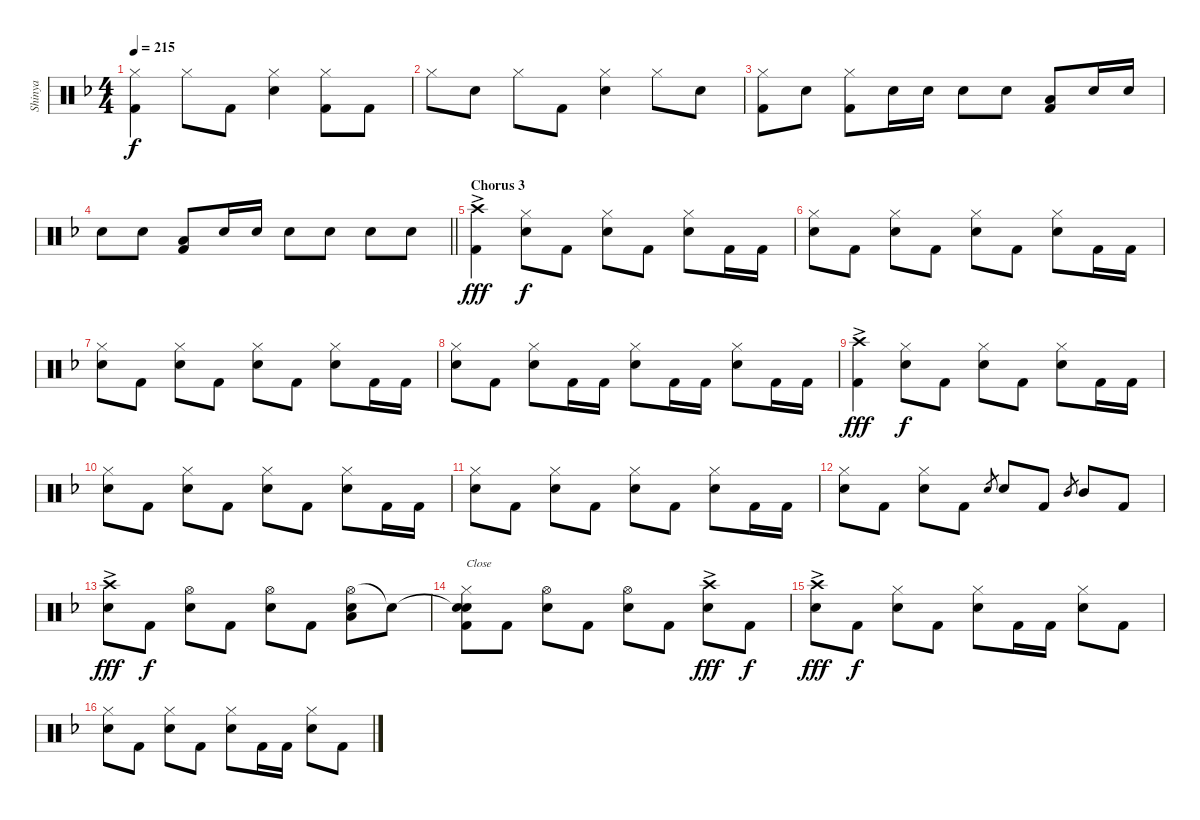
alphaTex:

\track ("Shinya" "Shinya") {instrument percussion}
\staff {score}
\articulation defaults
\ts (4 4)
\tempo 215
\clef neutral
\ks f
("Hi-Hat (closed)" "Kick (hit) 2").4{dy f} "Hi-Hat (closed)".8 "Kick (hit) 2".8 ("Hi-Hat (closed)" "Snare (hit) 2").4 ("Hi-Hat (closed)" "Kick (hit) 2").8 "Kick (hit) 2".8 |
"Hi-Hat (closed)".8 "Snare (hit) 2".8 "Hi-Hat (closed)".8 "Kick (hit) 2".8 ("Hi-Hat (closed)" "Snare (hit) 2").4 "Hi-Hat (closed)".8 "Snare (hit) 2".8 |
("Hi-Hat (closed)" "Kick (hit) 2").8 "Snare (hit) 2".8 ("Hi-Hat (closed)" "Kick (hit) 2").8 "Snare (hit) 2".16 "Snare (hit) 2".16 "Snare (hit) 2".8 "Snare (hit) 2".8 ("Low Tom (hit)" "Kick (hit) 2").8 "Snare (hit) 2".16 "Snare (hit) 2".16 |
\barLineRight lightlight "Snare (hit) 2".8 "Snare (hit) 2".8
("Low Tom (hit)" "Kick (hit) 2").8 "Snare (hit) 2".16 "Snare (hit) 2".16 "Snare (hit) 2".8 "Snare (hit) 2".8 "Snare (hit) 2".8 "Snare (hit) 2".8 |
\section ("" "Chorus 3")
("Crash high (hit)"{ac} "Kick (hit) 2").4{dy fff} ("Hi-Hat (closed)" "Snare (hit) 2").8{dy f} "Kick (hit) 2".8 ("Hi-Hat (closed)" "Snare (hit) 2").8 "Kick (hit) 2".8 ("Hi-Hat (closed)" "Snare (hit) 2").8 "Kick (hit) 2".16 "Kick (hit) 2".16 |
("Hi-Hat (closed)" "Snare (hit) 2").8 "Kick (hit) 2".8 ("Hi-Hat (closed)" "Snare (hit) 2").8 "Kick (hit) 2".8 ("Hi-Hat (closed)" "Snare (hit) 2").8 "Kick (hit) 2".8 ("Hi-Hat (closed)" "Snare (hit) 2").8 "Kick (hit) 2".16 "Kick (hit) 2".16 |
("Hi-Hat (closed)" "Snare (hit) 2").8 "Kick (hit) 2".8 ("Hi-Hat (closed)" "Snare (hit) 2").8 "Kick (hit) 2".8 ("Hi-Hat (closed)" "Snare (hit) 2").8 "Kick (hit) 2".8 ("Hi-Hat (closed)" "Snare (hit) 2").8 "Kick (hit) 2".16 "Kick (hit) 2".16 |
("Hi-Hat (closed)" "Snare (hit) 2").8 "Kick (hit) 2".8 ("Hi-Hat (closed)" "Snare (hit) 2").8 "Kick (hit) 2".16 "Kick (hit) 2".16 ("Hi-Hat (closed)" "Snare (hit) 2").8 "Kick (hit) 2".16 "Kick (hit) 2".16 ("Hi-Hat (closed)" "Snare (hit) 2").8 "Kick (hit) 2".16 "Kick (hit) 2".16 |
("Crash high (hit)"{ac} "Kick (hit) 2").4{dy fff} ("Hi-Hat (closed)" "Snare (hit) 2").8{dy f} "Kick (hit) 2".8 ("Hi-Hat (closed)" "Snare (hit) 2").8 "Kick (hit) 2".8 ("Hi-Hat (closed)" "Snare (hit) 2").8 "Kick (hit) 2".16 "Kick (hit) 2".16 |
("Hi-Hat (closed)" "Snare (hit) 2").8 "Kick (hit) 2".8 ("Hi-Hat (closed)" "Snare (hit) 2").8 "Kick (hit) 2".8 ("Hi-Hat (closed)" "Snare (hit) 2").8 "Kick (hit) 2".8 ("Hi-Hat (closed)" "Snare (hit) 2").8 "Kick (hit) 2".16 "Kick (hit) 2".16 |
("Hi-Hat (closed)" "Snare (hit) 2").8 "Kick (hit) 2".8 ("Hi-Hat (closed)" "Snare (hit) 2").8 "Kick (hit) 2".8 ("Hi-Hat (closed)" "Snare (hit) 2").8 "Kick (hit) 2".8 ("Hi-Hat (closed)" "Snare (hit) 2").8 "Kick (hit) 2".16 "Kick (hit) 2".16 |
("Hi-Hat (closed)" "Snare (hit) 2").8 "Kick (hit) 2".8 ("Hi-Hat (closed)" "Snare (hit) 2").8 "Kick (hit) 2".8 "Snare (hit) 2".8{gr} "Snare (hit) 2".8 "Kick (hit) 2".8 "Mid Tom (hit)".8{gr} "Mid Tom (hit)".8 "Kick (hit) 2".8 |
("Crash high (hit)"{ac} "Snare (hit) 2").8{dy fff} "Kick (hit) 2".8{dy f} ("Hi-Hat (open)" "Snare (hit) 2").8 "Kick (hit) 2".8 ("Hi-Hat (open)" "Snare (hit) 2").8 "Kick (hit) 2".8 ("Hi-Hat (open)" "Snare (hit) 2" "Low Floor Tom (hit)").8 "Snare (hit)"{t}.8 |
("Snare (hit)"{t} "Hi-Hat (closed)" "Snare (hit) 2" "Kick (hit) 2").8{txt "Close"} "Kick (hit) 2".8 ("Hi-Hat (open)" "Snare (hit) 2").8 "Kick (hit) 2".8 ("Hi-Hat (open)" "Snare (hit) 2").8 "Kick (hit) 2".8 ("Crash high (hit)"{ac} "Snare (hit) 2").8{dy fff} "Kick (hit) 2".8{dy f} |
("Crash high (hit)"{ac} "Snare (hit) 2").8{dy fff} "Kick (hit) 2".8{dy f} ("Hi-Hat (closed)" "Snare (hit) 2").8 "Kick (hit) 2".8 ("Hi-Hat (closed)" "Snare (hit) 2").8 "Kick (hit) 2".16 "Kick (hit) 2".16 ("Hi-Hat (closed)" "Snare (hit) 2").8 "Kick (hit) 2".8 |
("Hi-Hat (closed)" "Snare (hit) 2").8 "Kick (hit) 2".8 ("Hi-Hat (closed)" "Snare (hit) 2").8 "Kick (hit) 2".8 ("Hi-Hat (closed)" "Snare (hit) 2").8 "Kick (hit) 2".16 "Kick (hit) 2".16 ("Hi-Hat (closed)" "Snare (hit) 2").8 "Kick (hit) 2".8
